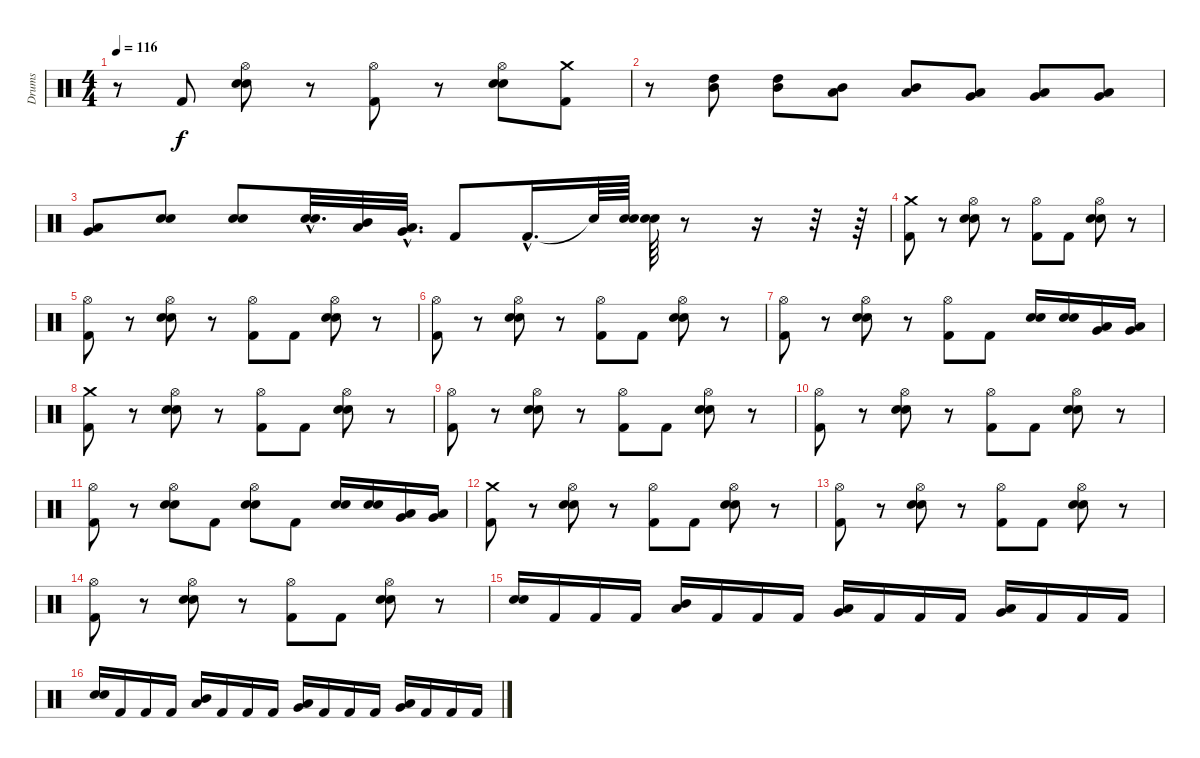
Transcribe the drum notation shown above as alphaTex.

\track ("Drums" "Drums") {instrument percussion}
\staff {score}
\articulation defaults
\ts (4 4)
\tempo 116
\clef neutral
\ks c
r.8{dy f} "Kick (hit) 2".8 ("Hi-Hat (open)" "Snare (hit) 2" "Electric Snare (hit)").8 r.8 ("Kick (hit) 2" "Hi-Hat (open)").8 r.8 ("Hi-Hat (open)" "Snare (hit) 2" "Electric Snare (hit)").8 ("Crash medium (hit)" "Kick (hit) 2").8 |
r.8 ("Mid Tom (hit)" "High Tom (hit)").8 ("Mid Tom (hit)" "High Tom (hit)").8 ("Low Tom (hit)" "Mid Tom (hit)").8 ("Low Tom (hit)" "Mid Tom (hit)").8 ("Very Low Tom (hit)" "Low Tom (hit)").8 ("Very Low Tom (hit)" "Low Tom (hit)").8 ("Low Floor Tom (hit)" "Very Low Tom (hit)").8 |
("Low Floor Tom (hit)" "Very Low Tom (hit)").8 ("Snare (hit) 2" "Electric Snare (hit)").8 ("Electric Snare (hit)" "Snare (hit) 2").8 ("Electric Snare (hit)"{hac} "Snare (hit) 2"{hac}).32{d} ("Mid Tom (hit)" "Low Tom (hit)").32 ("Very Low Tom (hit)"{hac} "Low Tom (hit)"{hac}).32{d} "Kick (hit) 2".8 "Kick (hit) 2"{hac}.16{d} "Snare (hit)"{t}.64 ("Electric Snare (hit)" "Snare (hit) 2").64 ("Electric Snare (hit)" "Snare (hit) 2").64 r.8 r.16 r.32 r.64 |
("Crash medium (hit)" "Kick (hit) 2").8 r.8 ("Hi-Hat (open)" "Snare (hit) 2" "Electric Snare (hit)").8 r.8 ("Kick (hit) 2" "Hi-Hat (open)").8 "Kick (hit) 2".8 ("Hi-Hat (open)" "Snare (hit) 2" "Electric Snare (hit)").8 r.8 |
("Hi-Hat (open)" "Kick (hit) 2").8 r.8 ("Hi-Hat (open)" "Snare (hit) 2" "Electric Snare (hit)").8 r.8 ("Kick (hit) 2" "Hi-Hat (open)").8 "Kick (hit) 2".8 ("Hi-Hat (open)" "Snare (hit) 2" "Electric Snare (hit)").8 r.8 |
("Hi-Hat (open)" "Kick (hit) 2").8 r.8 ("Hi-Hat (open)" "Snare (hit) 2" "Electric Snare (hit)").8 r.8 ("Kick (hit) 2" "Hi-Hat (open)").8 "Kick (hit) 2".8 ("Hi-Hat (open)" "Snare (hit) 2" "Electric Snare (hit)").8 r.8 |
("Hi-Hat (open)" "Kick (hit) 2").8 r.8 ("Hi-Hat (open)" "Snare (hit) 2" "Electric Snare (hit)").8 r.8 ("Kick (hit) 2" "Hi-Hat (open)").8 "Kick (hit) 2".8 ("Electric Snare (hit)" "Snare (hit) 2").16 ("Electric Snare (hit)" "Snare (hit) 2").16 ("Very Low Tom (hit)" "Low Tom (hit)").16 ("Very Low Tom (hit)" "Low Tom (hit)").16 |
("Crash medium (hit)" "Kick (hit) 2").8 r.8 ("Hi-Hat (open)" "Snare (hit) 2" "Electric Snare (hit)").8 r.8 ("Kick (hit) 2" "Hi-Hat (open)").8 "Kick (hit) 2".8 ("Electric Snare (hit)" "Snare (hit) 2" "Hi-Hat (open)").8 r.8 |
("Hi-Hat (open)" "Kick (hit) 2").8 r.8 ("Hi-Hat (open)" "Snare (hit) 2" "Electric Snare (hit)").8 r.8 ("Kick (hit) 2" "Hi-Hat (open)").8 "Kick (hit) 2".8 ("Hi-Hat (open)" "Snare (hit) 2" "Electric Snare (hit)").8 r.8 |
("Hi-Hat (open)" "Kick (hit) 2").8 r.8 ("Hi-Hat (open)" "Snare (hit) 2" "Electric Snare (hit)").8 r.8 ("Kick (hit) 2" "Hi-Hat (open)").8 "Kick (hit) 2".8 ("Hi-Hat (open)" "Snare (hit) 2" "Electric Snare (hit)").8 r.8 |
("Hi-Hat (open)" "Kick (hit) 2").8 r.8 ("Hi-Hat (open)" "Snare (hit) 2" "Electric Snare (hit)").8 "Kick (hit) 2".8 ("Hi-Hat (open)" "Electric Snare (hit)" "Snare (hit) 2").8 "Kick (hit) 2".8 ("Electric Snare (hit)" "Snare (hit) 2").16 ("Electric Snare (hit)" "Snare (hit) 2").16 ("Very Low Tom (hit)" "Low Tom (hit)").16 ("Very Low Tom (hit)" "Low Tom (hit)").16 |
("Crash medium (hit)" "Kick (hit) 2").8 r.8 ("Hi-Hat (open)" "Snare (hit) 2" "Electric Snare (hit)").8 r.8 ("Kick (hit) 2" "Hi-Hat (open)").8 "Kick (hit) 2".8 ("Electric Snare (hit)" "Snare (hit) 2" "Hi-Hat (open)").8 r.8 |
("Hi-Hat (open)" "Kick (hit) 2").8 r.8 ("Hi-Hat (open)" "Snare (hit) 2" "Electric Snare (hit)").8 r.8 ("Kick (hit) 2" "Hi-Hat (open)").8 "Kick (hit) 2".8 ("Hi-Hat (open)" "Snare (hit) 2" "Electric Snare (hit)").8 r.8 |
("Hi-Hat (open)" "Kick (hit) 2").8 r.8 ("Hi-Hat (open)" "Snare (hit) 2" "Electric Snare (hit)").8 r.8 ("Kick (hit) 2" "Hi-Hat (open)").8 "Kick (hit) 2".8 ("Hi-Hat (open)" "Snare (hit) 2" "Electric Snare (hit)").8 r.8 |
("Snare (hit) 2" "Electric Snare (hit)").16 "Kick (hit) 2".16 "Kick (hit) 2".16 "Kick (hit) 2".16 ("Low Tom (hit)" "Mid Tom (hit)").16 "Kick (hit) 2".16 "Kick (hit) 2".16 "Kick (hit) 2".16 ("Very Low Tom (hit)" "Low Tom (hit)").16 "Kick (hit) 2".16 "Kick (hit) 2".16 "Kick (hit) 2".16 ("Very Low Tom (hit)" "Low Floor Tom (hit)").16 "Kick (hit) 2".16 "Kick (hit) 2".16 "Kick (hit) 2".16 |
("Snare (hit) 2" "Electric Snare (hit)").16 "Kick (hit) 2".16 "Kick (hit) 2".16 "Kick (hit) 2".16 ("Low Tom (hit)" "Mid Tom (hit)").16 "Kick (hit) 2".16 "Kick (hit) 2".16 "Kick (hit) 2".16 ("Very Low Tom (hit)" "Low Tom (hit)").16 "Kick (hit) 2".16 "Kick (hit) 2".16 "Kick (hit) 2".16 ("Very Low Tom (hit)" "Low Floor Tom (hit)").16 "Kick (hit) 2".16 "Kick (hit) 2".16 "Kick (hit) 2".16
